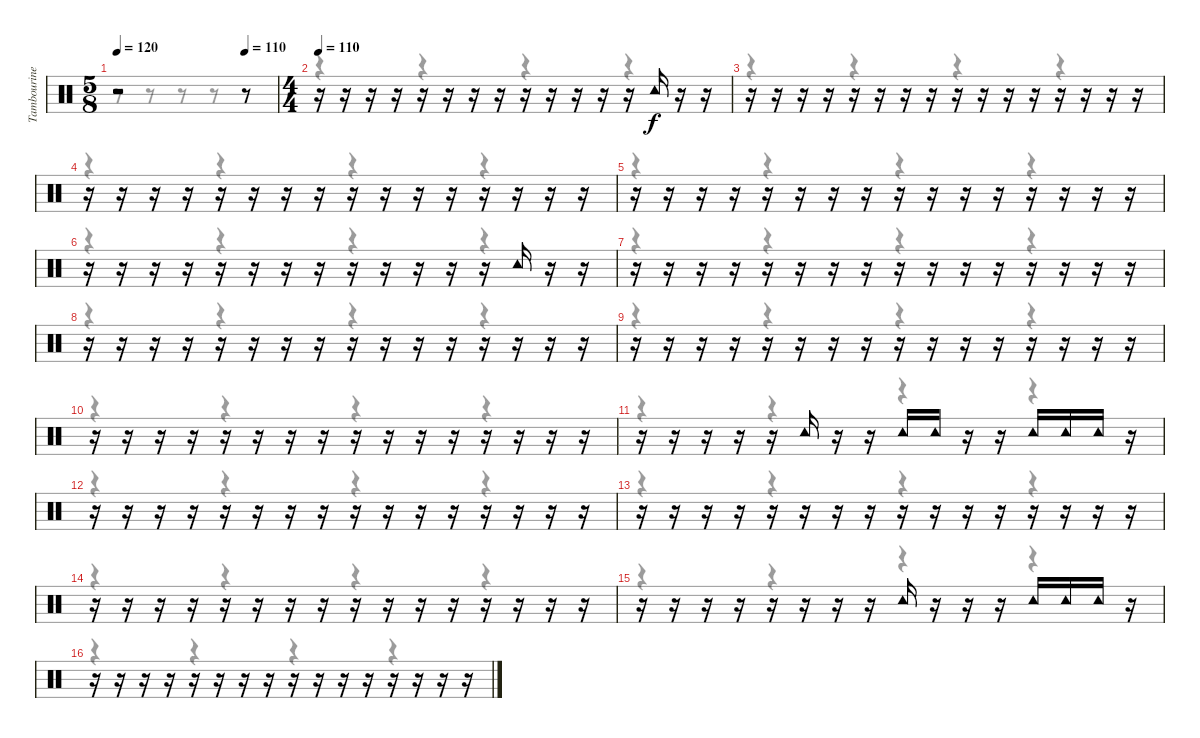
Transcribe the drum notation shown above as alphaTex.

\track ("Tambourine" "Tambourine") {instrument percussion}
\staff {score}
\articulation defaults
\voice
\ts (5 8)
\tempo 120
\tempo (110 0.8)
\clef neutral
\ks c
r.2{dy f} r.8 |
\ts (4 4)
\tempo 110
r.16 r.16 r.16 r.16 r.16 r.16 r.16 r.16 r.16 r.16 r.16 r.16 r.16 "Tambourine (hit)".16 r.16 r.16 |
r.16 r.16 r.16 r.16 r.16 r.16 r.16 r.16 r.16 r.16 r.16 r.16 r.16 r.16 r.16 r.16 |
r.16 r.16 r.16 r.16 r.16 r.16 r.16 r.16 r.16 r.16 r.16 r.16 r.16 r.16 r.16 r.16 |
r.16 r.16 r.16 r.16 r.16 r.16 r.16 r.16 r.16 r.16 r.16 r.16 r.16 r.16 r.16 r.16 |
r.16 r.16 r.16 r.16 r.16 r.16 r.16 r.16 r.16 r.16 r.16 r.16 r.16 "Tambourine (hit)".16 r.16 r.16 |
r.16 r.16 r.16 r.16 r.16 r.16 r.16 r.16 r.16 r.16 r.16 r.16 r.16 r.16 r.16 r.16 |
r.16 r.16 r.16 r.16 r.16 r.16 r.16 r.16 r.16 r.16 r.16 r.16 r.16 r.16 r.16 r.16 |
r.16 r.16 r.16 r.16 r.16 r.16 r.16 r.16 r.16 r.16 r.16 r.16 r.16 r.16 r.16 r.16 |
r.16 r.16 r.16 r.16 r.16 r.16 r.16 r.16 r.16 r.16 r.16 r.16 r.16 r.16 r.16 r.16 |
r.16 r.16 r.16 r.16 r.16 "Tambourine (hit)".16 r.16 r.16 "Tambourine (hit)".16 "Tambourine (hit)".16 r.16 r.16 "Tambourine (hit)".16 "Tambourine (hit)".16 "Tambourine (hit)".16 r.16 |
r.16 r.16 r.16 r.16 r.16 r.16 r.16 r.16 r.16 r.16 r.16 r.16 r.16 r.16 r.16 r.16 |
r.16 r.16 r.16 r.16 r.16 r.16 r.16 r.16 r.16 r.16 r.16 r.16 r.16 r.16 r.16 r.16 |
r.16 r.16 r.16 r.16 r.16 r.16 r.16 r.16 r.16 r.16 r.16 r.16 r.16 r.16 r.16 r.16 |
r.16 r.16 r.16 r.16 r.16 r.16 r.16 r.16 "Tambourine (hit)".16 r.16 r.16 r.16 "Tambourine (hit)".16 "Tambourine (hit)".16 "Tambourine (hit)".16 r.16 |
r.16 r.16 r.16 r.16 r.16 r.16 r.16 r.16 r.16 r.16 r.16 r.16 r.16 r.16 r.16 r.16
\voice
\clef neutral
\ottava regular
\simile none
\ks c
r.8{dy f} r.8 r.8 r.8 r.8 |
r.4 r.4 r.4 r.4 |
r.4 r.4 r.4 r.4 |
r.4 r.4 r.4 r.4 |
r.4 r.4 r.4 r.4 |
r.4 r.4 r.4 r.4 |
r.4 r.4 r.4 r.4 |
r.4 r.4 r.4 r.4 |
r.4 r.4 r.4 r.4 |
r.4 r.4 r.4 r.4 |
r.4 r.4 r.4 r.4 |
r.4 r.4 r.4 r.4 |
r.4 r.4 r.4 r.4 |
r.4 r.4 r.4 r.4 |
r.4 r.4 r.4 r.4 |
r.4 r.4 r.4 r.4
